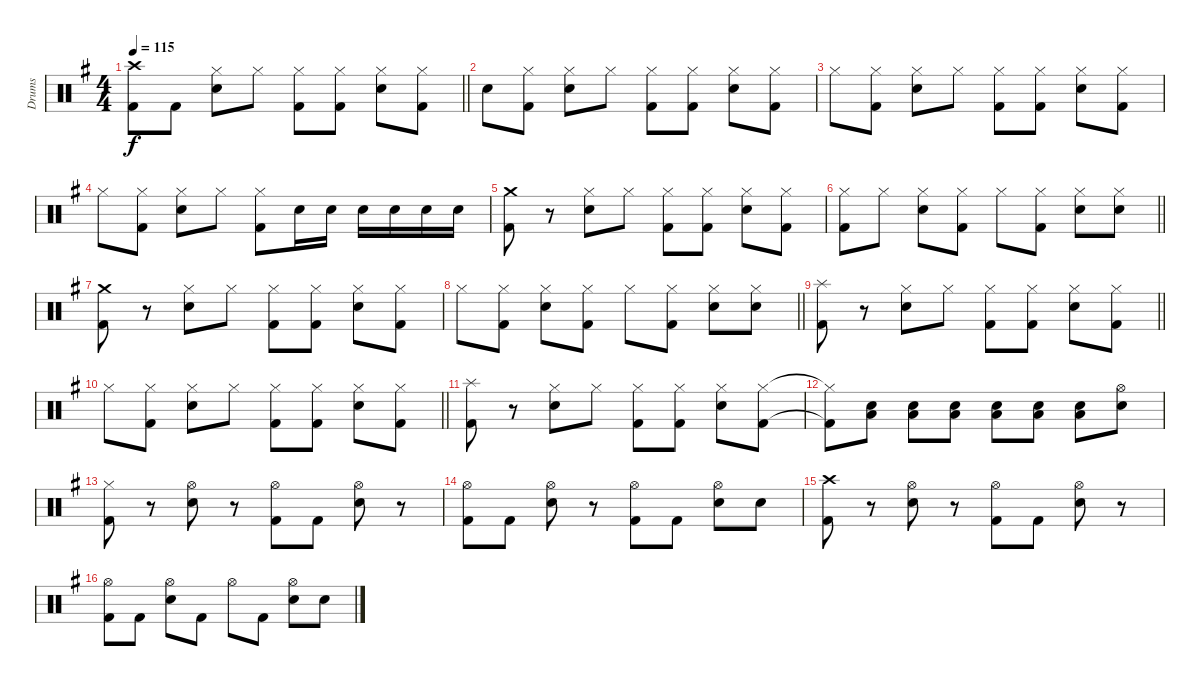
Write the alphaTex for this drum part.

\track ("Drums" "Drums") {instrument percussion}
\staff {score}
\articulation defaults
\ts (4 4)
\tempo 115
\clef neutral
\barLineRight lightlight
\ks g
("Crash high (hit)"{t} "Kick (hit) 2"{t}).8{dy f} "Kick (hit) 2".8 ("Hi-Hat (closed)" "Electric Snare (hit)").8 "Hi-Hat (closed)".8 ("Hi-Hat (closed)" "Kick (hit) 2").8 ("Hi-Hat (closed)" "Kick (hit) 2").8 ("Hi-Hat (closed)" "Electric Snare (hit)").8 ("Hi-Hat (closed)" "Kick (hit) 2").8 |
"Snare (hit)".8 ("Hi-Hat (closed)" "Kick (hit) 2").8 ("Hi-Hat (closed)" "Electric Snare (hit)").8 "Hi-Hat (closed)".8 ("Hi-Hat (closed)" "Kick (hit) 2").8 ("Hi-Hat (closed)" "Kick (hit) 2").8 ("Hi-Hat (closed)" "Electric Snare (hit)").8 ("Hi-Hat (closed)" "Kick (hit) 2").8 |
"Hi-Hat (closed)".8 ("Hi-Hat (closed)" "Kick (hit) 2").8 ("Hi-Hat (closed)" "Electric Snare (hit)").8 "Hi-Hat (closed)".8 ("Hi-Hat (closed)" "Kick (hit) 2").8 ("Hi-Hat (closed)" "Kick (hit) 2").8 ("Hi-Hat (closed)" "Electric Snare (hit)").8 ("Hi-Hat (closed)" "Kick (hit) 2").8 |
"Hi-Hat (closed)".8 ("Hi-Hat (closed)" "Kick (hit) 2").8 ("Hi-Hat (closed)" "Electric Snare (hit)").8 "Hi-Hat (closed)".8 ("Hi-Hat (closed)" "Kick (hit) 2").8 "Electric Snare (hit)".16 "Electric Snare (hit)".16 "Electric Snare (hit)".16 "Electric Snare (hit)".16 "Electric Snare (hit)".16 "Electric Snare (hit)".16 |
("Crash medium (hit)" "Kick (hit) 2").8 r.8 ("Hi-Hat (closed)" "Electric Snare (hit)").8 "Hi-Hat (closed)".8 ("Hi-Hat (closed)" "Kick (hit) 2").8 ("Hi-Hat (closed)" "Kick (hit) 2").8 ("Hi-Hat (closed)" "Electric Snare (hit)").8 ("Hi-Hat (closed)" "Kick (hit) 2").8 |
\barLineRight lightlight
("Hi-Hat (closed)" "Kick (hit) 2").8 "Hi-Hat (closed)".8 ("Hi-Hat (closed)" "Electric Snare (hit)").8 ("Hi-Hat (closed)" "Kick (hit) 2").8 "Hi-Hat (closed)".8 ("Hi-Hat (closed)" "Kick (hit) 2").8 ("Hi-Hat (closed)" "Electric Snare (hit)").8 ("Hi-Hat (closed)" "Electric Snare (hit)").8 |
("Crash medium (hit)" "Kick (hit) 2").8 r.8 ("Hi-Hat (closed)" "Electric Snare (hit)").8 "Hi-Hat (closed)".8 ("Hi-Hat (closed)" "Kick (hit) 2").8 ("Hi-Hat (closed)" "Kick (hit) 2").8 ("Hi-Hat (closed)" "Electric Snare (hit)").8 ("Hi-Hat (closed)" "Kick (hit) 2").8 |
\barLineRight lightlight "Hi-Hat (closed)".8
("Hi-Hat (closed)" "Kick (hit) 2").8 ("Hi-Hat (closed)" "Electric Snare (hit)").8 ("Hi-Hat (closed)" "Kick (hit) 2").8 "Hi-Hat (closed)".8 ("Hi-Hat (closed)" "Kick (hit) 2").8 ("Hi-Hat (closed)" "Electric Snare (hit)").8 ("Hi-Hat (closed)" "Electric Snare (hit)").8 |
\barLineRight lightlight
("Splash (hit)" "Kick (hit) 2").8 r.8 ("Hi-Hat (closed)" "Electric Snare (hit)").8 "Hi-Hat (closed)".8 ("Hi-Hat (closed)" "Kick (hit) 2").8 ("Hi-Hat (closed)" "Kick (hit) 2").8 ("Hi-Hat (closed)" "Electric Snare (hit)").8 ("Hi-Hat (closed)" "Kick (hit) 2").8 |
\barLineRight lightlight "Hi-Hat (closed)".8
("Hi-Hat (closed)" "Kick (hit) 2").8 ("Hi-Hat (closed)" "Electric Snare (hit)").8 "Hi-Hat (closed)".8 ("Hi-Hat (closed)" "Kick (hit) 2").8 ("Hi-Hat (closed)" "Kick (hit) 2").8 ("Hi-Hat (closed)" "Electric Snare (hit)").8 ("Hi-Hat (closed)" "Kick (hit) 2").8 |
("Splash (hit)" "Kick (hit) 2").8 r.8 ("Hi-Hat (closed)" "Electric Snare (hit)").8 "Hi-Hat (closed)".8 ("Hi-Hat (closed)" "Kick (hit) 2").8 ("Hi-Hat (closed)" "Kick (hit) 2").8 ("Hi-Hat (closed)" "Electric Snare (hit)").8 ("Hi-Hat (closed)" "Kick (hit) 2").8 |
("Hi-Hat (closed)"{t} "Kick (hit) 2"{t}).8 ("Electric Snare (hit)" "Low Tom (hit)").8 ("Electric Snare (hit)" "Low Tom (hit)").8 ("Electric Snare (hit)" "Low Tom (hit)").8 ("Electric Snare (hit)" "Low Tom (hit)").8 ("Electric Snare (hit)" "Low Tom (hit)").8 ("Electric Snare (hit)" "Low Tom (hit)").8 ("Hi-Hat (open)" "Electric Snare (hit)").8 |
("Hi-Hat (closed)" "Kick (hit) 2").8 r.8 ("Hi-Hat (open)" "Electric Snare (hit)").8 r.8 ("Hi-Hat (open)" "Kick (hit) 2").8 "Kick (hit) 2".8 ("Hi-Hat (open)" "Electric Snare (hit)").8 r.8 |
("Hi-Hat (open)" "Kick (hit) 2").8 "Kick (hit) 2".8 ("Hi-Hat (open)" "Electric Snare (hit)").8 r.8 ("Hi-Hat (open)" "Kick (hit) 2").8 "Kick (hit) 2".8 ("Hi-Hat (open)" "Electric Snare (hit)").8 "Electric Snare (hit)".8 |
("Crash high (hit)" "Kick (hit) 2").8 r.8 ("Hi-Hat (open)" "Electric Snare (hit)").8 r.8 ("Hi-Hat (open)" "Kick (hit) 2").8 "Kick (hit) 2".8 ("Hi-Hat (open)" "Electric Snare (hit)").8 r.8 |
("Hi-Hat (open)" "Kick (hit) 2").8 "Kick (hit) 2".8 ("Hi-Hat (open)" "Electric Snare (hit)").8 "Kick (hit) 2".8 "Hi-Hat (open)".8 "Kick (hit) 2".8 ("Hi-Hat (open)" "Electric Snare (hit)").8 "Electric Snare (hit)".8
